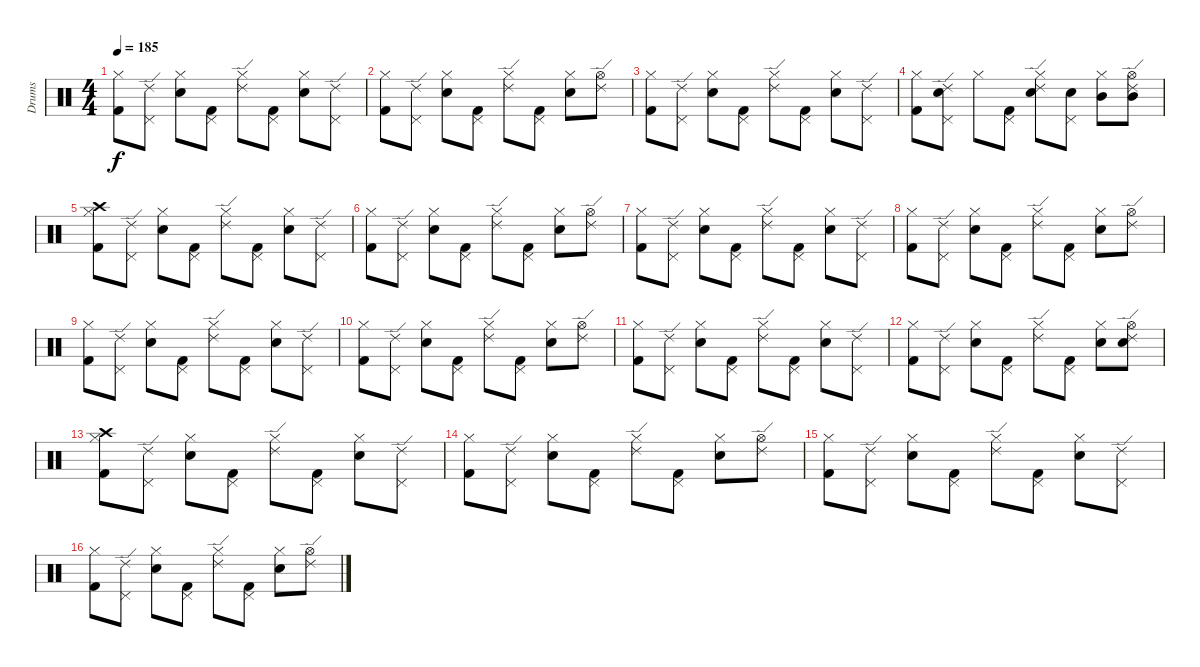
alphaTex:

\track ("Drums" "Drums") {instrument percussion}
\staff {score}
\articulation defaults
\ts (4 4)
\tempo 185
\clef neutral
\ks c
("Kick (hit) 2" "Hi-Hat (closed)").8{dy f} ("Ride (edge) 2" "Pedal Hi-Hat (hit)").8 ("Electric Snare (hit)" "Hi-Hat (closed)").8 ("Kick (hit) 2" "Pedal Hi-Hat (hit)").8 ("Ride (edge) 2" "Hi-Hat (closed)").8 ("Kick (hit) 2" "Pedal Hi-Hat (hit)").8 ("Electric Snare (hit)" "Hi-Hat (closed)").8 ("Ride (edge) 2" "Pedal Hi-Hat (hit)").8 |
("Kick (hit) 2" "Hi-Hat (closed)").8 ("Ride (edge) 2" "Pedal Hi-Hat (hit)").8 ("Electric Snare (hit)" "Hi-Hat (closed)").8 ("Kick (hit) 2" "Pedal Hi-Hat (hit)").8 ("Ride (edge) 2" "Hi-Hat (closed)").8 ("Kick (hit) 2" "Pedal Hi-Hat (hit)").8 ("Electric Snare (hit)" "Hi-Hat (closed)").8 ("Ride (edge) 2" "Hi-Hat (open)").8 |
("Kick (hit) 2" "Hi-Hat (closed)").8 ("Ride (edge) 2" "Pedal Hi-Hat (hit)").8 ("Electric Snare (hit)" "Hi-Hat (closed)").8 ("Kick (hit) 2" "Pedal Hi-Hat (hit)").8 ("Ride (edge) 2" "Hi-Hat (closed)").8 ("Kick (hit) 2" "Pedal Hi-Hat (hit)").8 ("Electric Snare (hit)" "Hi-Hat (closed)").8 ("Ride (edge) 2" "Pedal Hi-Hat (hit)").8 |
("Kick (hit) 2" "Hi-Hat (closed)").8 ("Electric Snare (hit)" "Ride (edge) 2" "Pedal Hi-Hat (hit)").8 "Hi-Hat (closed)".8 ("Kick (hit) 2" "Pedal Hi-Hat (hit)").8 ("Electric Snare (hit)" "Ride (edge) 2" "Hi-Hat (closed)").8 ("Electric Snare (hit)" "Pedal Hi-Hat (hit)").8 ("Mid Tom (hit)" "Hi-Hat (closed)").8 ("Mid Tom (hit)" "Ride (edge) 2" "Hi-Hat (open)").8 |
("Kick (hit) 2" "Crash high (hit)" "Hi-Hat (closed)").8 ("Ride (edge) 2" "Pedal Hi-Hat (hit)").8 ("Electric Snare (hit)" "Hi-Hat (closed)").8 ("Kick (hit) 2" "Pedal Hi-Hat (hit)").8 ("Ride (edge) 2" "Hi-Hat (closed)").8 ("Kick (hit) 2" "Pedal Hi-Hat (hit)").8 ("Electric Snare (hit)" "Hi-Hat (closed)").8 ("Ride (edge) 2" "Pedal Hi-Hat (hit)").8 |
("Kick (hit) 2" "Hi-Hat (closed)").8 ("Ride (edge) 2" "Pedal Hi-Hat (hit)").8 ("Electric Snare (hit)" "Hi-Hat (closed)").8 ("Kick (hit) 2" "Pedal Hi-Hat (hit)").8 ("Ride (edge) 2" "Hi-Hat (closed)").8 ("Kick (hit) 2" "Pedal Hi-Hat (hit)").8 ("Electric Snare (hit)" "Hi-Hat (closed)").8 ("Ride (edge) 2" "Hi-Hat (open)").8 |
("Kick (hit) 2" "Hi-Hat (closed)").8 ("Ride (edge) 2" "Pedal Hi-Hat (hit)").8 ("Electric Snare (hit)" "Hi-Hat (closed)").8 ("Kick (hit) 2" "Pedal Hi-Hat (hit)").8 ("Ride (edge) 2" "Hi-Hat (closed)").8 ("Kick (hit) 2" "Pedal Hi-Hat (hit)").8 ("Electric Snare (hit)" "Hi-Hat (closed)").8 ("Ride (edge) 2" "Pedal Hi-Hat (hit)").8 |
("Kick (hit) 2" "Hi-Hat (closed)").8 ("Ride (edge) 2" "Pedal Hi-Hat (hit)").8 ("Electric Snare (hit)" "Hi-Hat (closed)").8 ("Kick (hit) 2" "Pedal Hi-Hat (hit)").8 ("Ride (edge) 2" "Hi-Hat (closed)").8 ("Kick (hit) 2" "Pedal Hi-Hat (hit)").8 ("Electric Snare (hit)" "Hi-Hat (closed)").8 ("Ride (edge) 2" "Hi-Hat (open)").8 |
("Kick (hit) 2" "Hi-Hat (closed)").8 ("Ride (edge) 2" "Pedal Hi-Hat (hit)").8 ("Electric Snare (hit)" "Hi-Hat (closed)").8 ("Kick (hit) 2" "Pedal Hi-Hat (hit)").8 ("Ride (edge) 2" "Hi-Hat (closed)").8 ("Kick (hit) 2" "Pedal Hi-Hat (hit)").8 ("Electric Snare (hit)" "Hi-Hat (closed)").8 ("Ride (edge) 2" "Pedal Hi-Hat (hit)").8 |
("Kick (hit) 2" "Hi-Hat (closed)").8 ("Ride (edge) 2" "Pedal Hi-Hat (hit)").8 ("Electric Snare (hit)" "Hi-Hat (closed)").8 ("Kick (hit) 2" "Pedal Hi-Hat (hit)").8 ("Ride (edge) 2" "Hi-Hat (closed)").8 ("Kick (hit) 2" "Pedal Hi-Hat (hit)").8 ("Electric Snare (hit)" "Hi-Hat (closed)").8 ("Ride (edge) 2" "Hi-Hat (open)").8 |
("Kick (hit) 2" "Hi-Hat (closed)").8 ("Ride (edge) 2" "Pedal Hi-Hat (hit)").8 ("Electric Snare (hit)" "Hi-Hat (closed)").8 ("Kick (hit) 2" "Pedal Hi-Hat (hit)").8 ("Ride (edge) 2" "Hi-Hat (closed)").8 ("Kick (hit) 2" "Pedal Hi-Hat (hit)").8 ("Electric Snare (hit)" "Hi-Hat (closed)").8 ("Ride (edge) 2" "Pedal Hi-Hat (hit)").8 |
("Kick (hit) 2" "Hi-Hat (closed)").8 ("Ride (edge) 2" "Pedal Hi-Hat (hit)").8 ("Electric Snare (hit)" "Hi-Hat (closed)").8 ("Kick (hit) 2" "Pedal Hi-Hat (hit)").8 ("Ride (edge) 2" "Hi-Hat (closed)").8 ("Kick (hit) 2" "Pedal Hi-Hat (hit)").8 ("Electric Snare (hit)" "Hi-Hat (closed)").8 ("Electric Snare (hit)" "Ride (edge) 2" "Hi-Hat (open)").8 |
("Kick (hit) 2" "Crash high (hit)" "Hi-Hat (closed)").8 ("Ride (edge) 2" "Pedal Hi-Hat (hit)").8 ("Electric Snare (hit)" "Hi-Hat (closed)").8 ("Kick (hit) 2" "Pedal Hi-Hat (hit)").8 ("Ride (edge) 2" "Hi-Hat (closed)").8 ("Kick (hit) 2" "Pedal Hi-Hat (hit)").8 ("Electric Snare (hit)" "Hi-Hat (closed)").8 ("Ride (edge) 2" "Pedal Hi-Hat (hit)").8 |
("Kick (hit) 2" "Hi-Hat (closed)").8 ("Ride (edge) 2" "Pedal Hi-Hat (hit)").8 ("Electric Snare (hit)" "Hi-Hat (closed)").8 ("Kick (hit) 2" "Pedal Hi-Hat (hit)").8 ("Ride (edge) 2" "Hi-Hat (closed)").8 ("Kick (hit) 2" "Pedal Hi-Hat (hit)").8 ("Electric Snare (hit)" "Hi-Hat (closed)").8 ("Ride (edge) 2" "Hi-Hat (open)").8 |
("Kick (hit) 2" "Hi-Hat (closed)").8 ("Ride (edge) 2" "Pedal Hi-Hat (hit)").8 ("Electric Snare (hit)" "Hi-Hat (closed)").8 ("Kick (hit) 2" "Pedal Hi-Hat (hit)").8 ("Ride (edge) 2" "Hi-Hat (closed)").8 ("Kick (hit) 2" "Pedal Hi-Hat (hit)").8 ("Electric Snare (hit)" "Hi-Hat (closed)").8 ("Ride (edge) 2" "Pedal Hi-Hat (hit)").8 |
("Kick (hit) 2" "Hi-Hat (closed)").8 ("Ride (edge) 2" "Pedal Hi-Hat (hit)").8 ("Electric Snare (hit)" "Hi-Hat (closed)").8 ("Kick (hit) 2" "Pedal Hi-Hat (hit)").8 ("Ride (edge) 2" "Hi-Hat (closed)").8 ("Kick (hit) 2" "Pedal Hi-Hat (hit)").8 ("Electric Snare (hit)" "Hi-Hat (closed)").8 ("Ride (edge) 2" "Hi-Hat (open)").8
